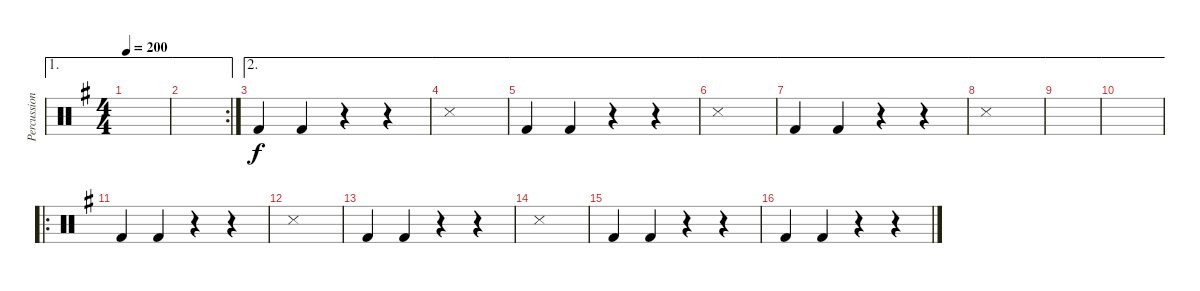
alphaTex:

\track ("Percussion" "Percussion") {instrument percussion}
\staff {score}
\articulation defaults
\ae 1
\ts (4 4)
\tempo 200
\clef neutral
\ks g
|
\ae 1
\rc 2
|
\ae 2 "Kick (hit) 2".4 "Kick (hit) 2".4
r.4 r.4 |
\ae 2 "Snare (side stick) 3".1
|
\ae 2 "Kick (hit) 2".4 "Kick (hit) 2".4
r.4 r.4 |
\ae 2 "Snare (side stick) 3".1
|
\ae 2 "Kick (hit) 2".4 "Kick (hit) 2".4
r.4 r.4 |
\ae 2 "Snare (side stick) 3".1
|
\ae 2
|
\ae 2
|
\ro
\section ("" "")
"Kick (hit) 2".4 "Kick (hit) 2".4 r.4 r.4 |
"Snare (side stick) 3".1 |
"Kick (hit) 2".4 "Kick (hit) 2".4 r.4 r.4 |
"Snare (side stick) 3".1 |
"Kick (hit) 2".4 "Kick (hit) 2".4 r.4 r.4 |
"Kick (hit) 2".4 "Kick (hit) 2".4 r.4 r.4
